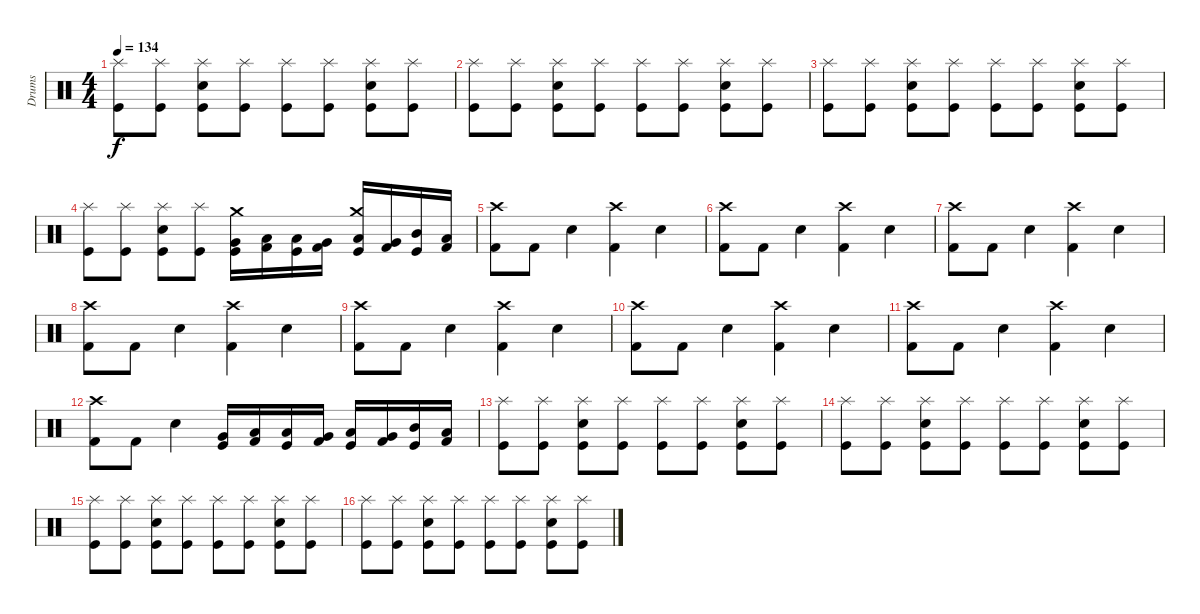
\track ("Drums" "Drums") {instrument percussion}
\staff {score}
\articulation defaults
\ts (4 4)
\tempo 134
\clef neutral
\ks c
("Splash (hit)" "Kick (hit)").8{dy f} ("Splash (hit)" "Kick (hit)").8 ("Splash (hit)" "Kick (hit)" "Electric Snare (hit)").8 ("Splash (hit)" "Kick (hit)").8 ("Kick (hit)" "Splash (hit)").8 ("Splash (hit)" "Kick (hit)").8 ("Splash (hit)" "Kick (hit)" "Electric Snare (hit)").8 ("Splash (hit)" "Kick (hit)").8 |
("Splash (hit)" "Kick (hit)").8 ("Splash (hit)" "Kick (hit)").8 ("Splash (hit)" "Kick (hit)" "Electric Snare (hit)").8 ("Splash (hit)" "Kick (hit)").8 ("Kick (hit)" "Splash (hit)").8 ("Splash (hit)" "Kick (hit)").8 ("Splash (hit)" "Kick (hit)" "Electric Snare (hit)").8 ("Splash (hit)" "Kick (hit)").8 |
("Splash (hit)" "Kick (hit)").8 ("Splash (hit)" "Kick (hit)").8 ("Splash (hit)" "Kick (hit)" "Electric Snare (hit)").8 ("Splash (hit)" "Kick (hit)").8 ("Kick (hit)" "Splash (hit)").8 ("Splash (hit)" "Kick (hit)").8 ("Splash (hit)" "Kick (hit)" "Electric Snare (hit)").8 ("Splash (hit)" "Kick (hit)").8 |
("Splash (hit)" "Kick (hit)").8 ("Splash (hit)" "Kick (hit)").8 ("Splash (hit)" "Kick (hit)" "Electric Snare (hit)").8 ("Splash (hit)" "Kick (hit)").8 ("Very Low Tom (hit)" "Kick (hit)" "Crash medium (hit)").16 ("Kick (hit) 2" "Low Floor Tom (hit)").16 ("Kick (hit)" "Low Tom (hit)").16 ("Kick (hit) 2" "Very Low Tom (hit)").16 ("Kick (hit)" "Low Tom (hit)" "Crash medium (hit)").16 ("Kick (hit) 2" "Very Low Tom (hit)").16 ("Kick (hit)" "Mid Tom (hit)").16 ("Kick (hit) 2" "Low Tom (hit)").16 |
("Crash high (hit)" "Kick (hit) 2").8 "Kick (hit) 2".8 "Electric Snare (hit)".4 ("Kick (hit) 2" "Crash high (hit)").4 "Electric Snare (hit)".4 |
("Kick (hit) 2" "Crash high (hit)").8 "Kick (hit) 2".8 "Electric Snare (hit)".4 ("Kick (hit) 2" "Crash high (hit)").4 "Electric Snare (hit)".4 |
("Crash high (hit)" "Kick (hit) 2").8 "Kick (hit) 2".8 "Electric Snare (hit)".4 ("Kick (hit) 2" "Crash high (hit)").4 "Electric Snare (hit)".4 |
("Kick (hit) 2" "Crash high (hit)").8 "Kick (hit) 2".8 "Electric Snare (hit)".4 ("Kick (hit) 2" "Crash high (hit)").4 "Electric Snare (hit)".4 |
("Crash high (hit)" "Kick (hit) 2").8 "Kick (hit) 2".8 "Electric Snare (hit)".4 ("Kick (hit) 2" "Crash high (hit)").4 "Electric Snare (hit)".4 |
("Kick (hit) 2" "Crash high (hit)").8 "Kick (hit) 2".8 "Electric Snare (hit)".4 ("Kick (hit) 2" "Crash high (hit)").4 "Electric Snare (hit)".4 |
("Crash high (hit)" "Kick (hit) 2").8 "Kick (hit) 2".8 "Electric Snare (hit)".4 ("Kick (hit) 2" "Crash high (hit)").4 "Electric Snare (hit)".4 |
("Kick (hit) 2" "Crash high (hit)").8 "Kick (hit) 2".8 "Electric Snare (hit)".4 ("Very Low Tom (hit)" "Kick (hit)").16 ("Kick (hit) 2" "Low Floor Tom (hit)").16 ("Kick (hit)" "Low Tom (hit)").16 ("Kick (hit) 2" "Very Low Tom (hit)").16 ("Kick (hit)" "Low Tom (hit)").16 ("Kick (hit) 2" "Very Low Tom (hit)").16 ("Kick (hit)" "Mid Tom (hit)").16 ("Kick (hit) 2" "Low Tom (hit)").16 |
("Kick (hit)" "Splash (hit)").8 ("Splash (hit)" "Kick (hit)").8 ("Splash (hit)" "Kick (hit)" "Electric Snare (hit)").8 ("Splash (hit)" "Kick (hit)").8 ("Kick (hit)" "Splash (hit)").8 ("Splash (hit)" "Kick (hit)").8 ("Splash (hit)" "Kick (hit)" "Electric Snare (hit)").8 ("Splash (hit)" "Kick (hit)").8 |
("Splash (hit)" "Kick (hit)").8 ("Splash (hit)" "Kick (hit)").8 ("Splash (hit)" "Kick (hit)" "Electric Snare (hit)").8 ("Splash (hit)" "Kick (hit)").8 ("Kick (hit)" "Splash (hit)").8 ("Splash (hit)" "Kick (hit)").8 ("Splash (hit)" "Kick (hit)" "Electric Snare (hit)").8 ("Splash (hit)" "Kick (hit)").8 |
("Splash (hit)" "Kick (hit)").8 ("Splash (hit)" "Kick (hit)").8 ("Splash (hit)" "Kick (hit)" "Electric Snare (hit)").8 ("Splash (hit)" "Kick (hit)").8 ("Kick (hit)" "Splash (hit)").8 ("Splash (hit)" "Kick (hit)").8 ("Splash (hit)" "Kick (hit)" "Electric Snare (hit)").8 ("Splash (hit)" "Kick (hit)").8 |
("Splash (hit)" "Kick (hit)").8 ("Splash (hit)" "Kick (hit)").8 ("Splash (hit)" "Kick (hit)" "Electric Snare (hit)").8 ("Splash (hit)" "Kick (hit)").8 ("Kick (hit)" "Splash (hit)").8 ("Splash (hit)" "Kick (hit)").8 ("Splash (hit)" "Kick (hit)" "Electric Snare (hit)").8 ("Splash (hit)" "Kick (hit)").8
